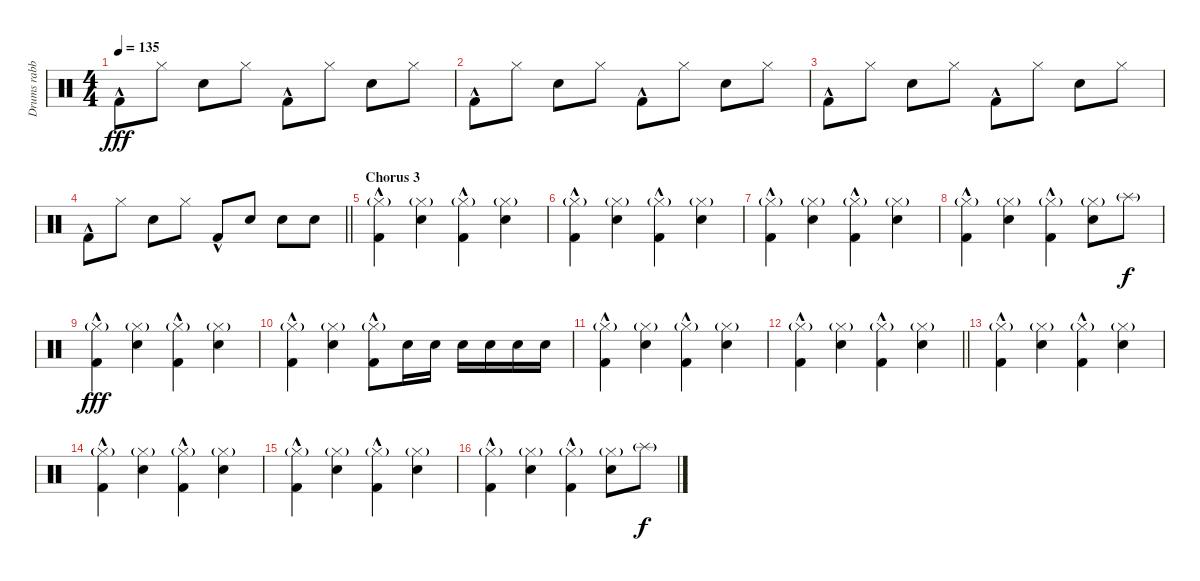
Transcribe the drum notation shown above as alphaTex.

\track ("Drums rabbit" "Drums rabb") {instrument percussion}
\staff {score}
\articulation defaults
\ts (4 4)
\tempo 135
\clef neutral
\ks c "Kick (hit) 2"{hac}.8{dy fff} "Hi-Hat (closed)".8 "Electric Snare (hit)".8 "Hi-Hat (closed)".8 "Kick (hit) 2"{hac}.8 "Hi-Hat (closed)".8 "Electric Snare (hit)".8 "Hi-Hat (closed)".8
|
"Kick (hit) 2"{hac}.8 "Hi-Hat (closed)".8 "Electric Snare (hit)".8 "Hi-Hat (closed)".8 "Kick (hit) 2"{hac}.8 "Hi-Hat (closed)".8 "Electric Snare (hit)".8 "Hi-Hat (closed)".8 |
"Kick (hit) 2"{hac}.8 "Hi-Hat (closed)".8 "Electric Snare (hit)".8 "Hi-Hat (closed)".8 "Kick (hit) 2"{hac}.8 "Hi-Hat (closed)".8 "Electric Snare (hit)".8 "Hi-Hat (closed)".8 |
\barLineRight lightlight "Kick (hit) 2"{hac}.8 "Hi-Hat (closed)".8 "Electric Snare (hit)".8 "Hi-Hat (closed)".8 "Kick (hit) 2"{hac}.8 "Electric Snare (hit)".8 "Electric Snare (hit)".8 "Electric Snare (hit)".8
|
\section ("" "Chorus 3")
("Kick (hit) 2"{hac} "Hi-Hat (closed)"{g}).4 ("Electric Snare (hit)" "Hi-Hat (closed)"{g}).4 ("Kick (hit) 2"{hac} "Hi-Hat (closed)"{g}).4 ("Electric Snare (hit)" "Hi-Hat (closed)"{g}).4 |
("Kick (hit) 2"{hac} "Hi-Hat (closed)"{g}).4 ("Electric Snare (hit)" "Hi-Hat (closed)"{g}).4 ("Kick (hit) 2"{hac} "Hi-Hat (closed)"{g}).4 ("Electric Snare (hit)" "Hi-Hat (closed)"{g}).4 |
("Kick (hit) 2"{hac} "Hi-Hat (closed)"{g}).4 ("Electric Snare (hit)" "Hi-Hat (closed)"{g}).4 ("Kick (hit) 2"{hac} "Hi-Hat (closed)"{g}).4 ("Electric Snare (hit)" "Hi-Hat (closed)"{g}).4 |
("Kick (hit) 2"{hac} "Hi-Hat (closed)"{g}).4 ("Electric Snare (hit)" "Hi-Hat (closed)"{g}).4 ("Kick (hit) 2"{hac} "Hi-Hat (closed)"{g}).4 ("Electric Snare (hit)" "Hi-Hat (closed)"{g}).8 "Splash (hit)"{g}.8{dy f} |
("Kick (hit) 2"{hac} "Hi-Hat (closed)"{g}).4{dy fff} ("Electric Snare (hit)" "Hi-Hat (closed)"{g}).4 ("Kick (hit) 2"{hac} "Hi-Hat (closed)"{g}).4 ("Electric Snare (hit)" "Hi-Hat (closed)"{g}).4 |
("Kick (hit) 2"{hac} "Hi-Hat (closed)"{g}).4 ("Electric Snare (hit)" "Hi-Hat (closed)"{g}).4 ("Kick (hit) 2"{hac} "Hi-Hat (closed)"{g}).8 "Electric Snare (hit)".16 "Electric Snare (hit)".16 "Electric Snare (hit)".16 "Electric Snare (hit)".16 "Electric Snare (hit)".16 "Electric Snare (hit)".16 |
("Kick (hit) 2"{hac} "Hi-Hat (closed)"{g}).4 ("Electric Snare (hit)" "Hi-Hat (closed)"{g}).4 ("Kick (hit) 2"{hac} "Hi-Hat (closed)"{g}).4 ("Electric Snare (hit)" "Hi-Hat (closed)"{g}).4 |
\barLineRight lightlight
("Kick (hit) 2"{hac} "Hi-Hat (closed)"{g}).4 ("Electric Snare (hit)" "Hi-Hat (closed)"{g}).4 ("Kick (hit) 2"{hac} "Hi-Hat (closed)"{g}).4 ("Electric Snare (hit)" "Hi-Hat (closed)"{g}).4 |
("Kick (hit) 2"{hac} "Hi-Hat (closed)"{g}).4 ("Electric Snare (hit)" "Hi-Hat (closed)"{g}).4 ("Kick (hit) 2"{hac} "Hi-Hat (closed)"{g}).4 ("Electric Snare (hit)" "Hi-Hat (closed)"{g}).4 |
("Kick (hit) 2"{hac} "Hi-Hat (closed)"{g}).4 ("Electric Snare (hit)" "Hi-Hat (closed)"{g}).4 ("Kick (hit) 2"{hac} "Hi-Hat (closed)"{g}).4 ("Electric Snare (hit)" "Hi-Hat (closed)"{g}).4 |
("Kick (hit) 2"{hac} "Hi-Hat (closed)"{g}).4 ("Electric Snare (hit)" "Hi-Hat (closed)"{g}).4 ("Kick (hit) 2"{hac} "Hi-Hat (closed)"{g}).4 ("Electric Snare (hit)" "Hi-Hat (closed)"{g}).4 |
("Kick (hit) 2"{hac} "Hi-Hat (closed)"{g}).4 ("Electric Snare (hit)" "Hi-Hat (closed)"{g}).4 ("Kick (hit) 2"{hac} "Hi-Hat (closed)"{g}).4 ("Electric Snare (hit)" "Hi-Hat (closed)"{g}).8 "Splash (hit)"{g}.8{dy f}
